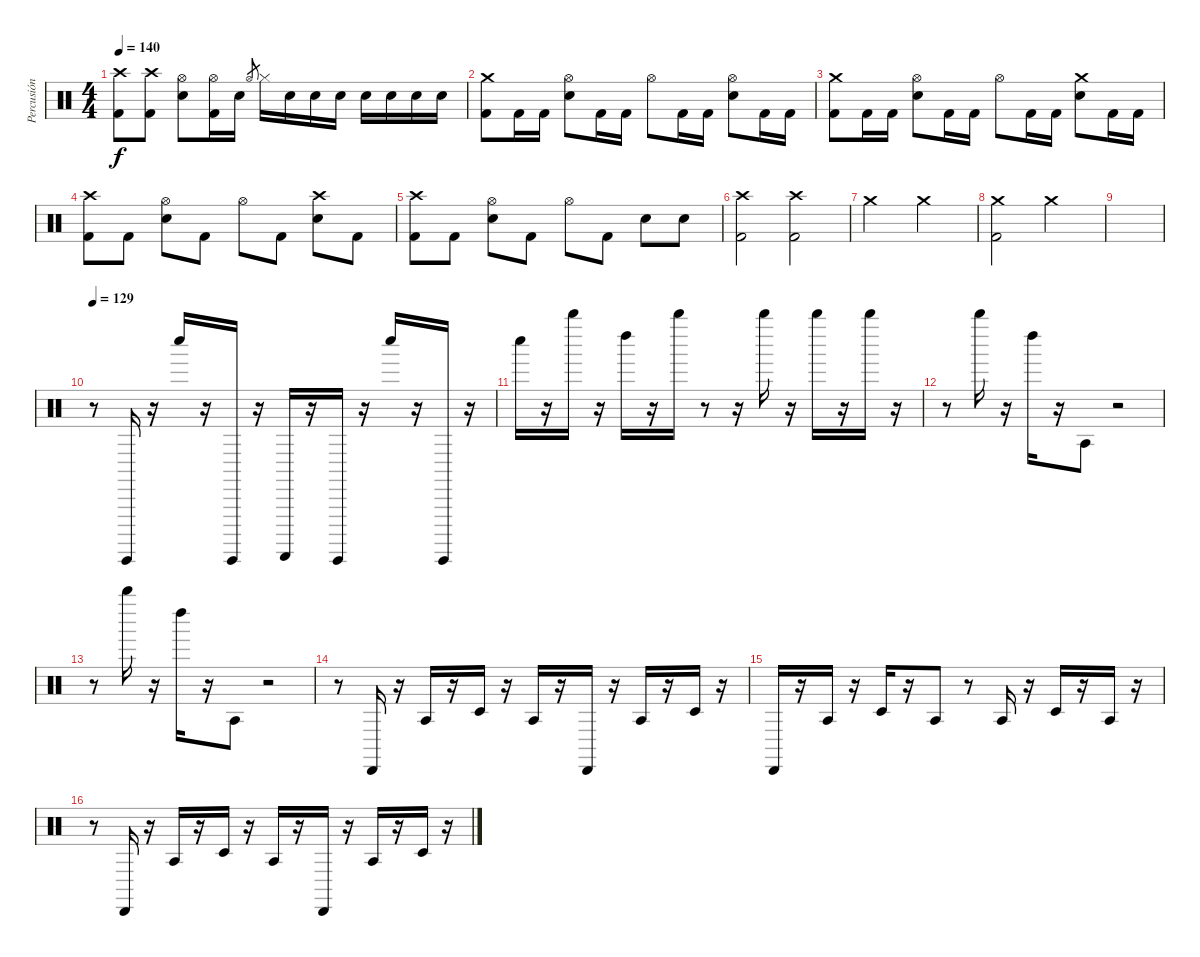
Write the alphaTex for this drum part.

\track ("Percusión" "Percusión") {instrument percussion}
\staff {score}
\articulation defaults
\ts (4 4)
\tempo 140
\clef neutral
\ks c
("Crash high (hit)" "Kick (hit) 2").8{dy f} ("Crash high (hit)" "Kick (hit) 2").8 ("Hi-Hat (open)" "Snare (hit) 2").8 ("Hi-Hat (open)" "Kick (hit) 2").16 "Snare (hit) 2".16 "Hi-Hat (open)".8{gr} "Hi-Hat (closed)".16 "Snare (hit) 2".16 "Snare (hit) 2".16 "Snare (hit) 2".16 "Snare (hit) 2".16 "Snare (hit) 2".16 "Snare (hit) 2".16 "Snare (hit) 2".16 |
("Crash medium (hit)" "Kick (hit) 2").8 "Kick (hit) 2".16 "Kick (hit) 2".16 ("Hi-Hat (open)" "Snare (hit) 2").8 "Kick (hit) 2".16 "Kick (hit) 2".16 "Hi-Hat (open)".8 "Kick (hit) 2".16 "Kick (hit) 2".16 ("Hi-Hat (open)" "Snare (hit) 2").8 "Kick (hit) 2".16 "Kick (hit) 2".16 |
("Crash medium (hit)" "Kick (hit) 2").8 "Kick (hit) 2".16 "Kick (hit) 2".16 ("Hi-Hat (open)" "Snare (hit) 2").8 "Kick (hit) 2".16 "Kick (hit) 2".16 "Hi-Hat (open)".8 "Kick (hit) 2".16 "Kick (hit) 2".16 ("Crash medium (hit)" "Snare (hit) 2").8 "Kick (hit) 2".16 "Kick (hit) 2".16 |
("Crash high (hit)" "Kick (hit) 2").8 "Kick (hit) 2".8 ("Hi-Hat (open)" "Snare (hit) 2").8 "Kick (hit) 2".8 "Hi-Hat (open)".8 "Kick (hit) 2".8 ("Crash high (hit)" "Snare (hit) 2").8 "Kick (hit) 2".8 |
("Crash high (hit)" "Kick (hit) 2").8 "Kick (hit) 2".8 ("Hi-Hat (open)" "Snare (hit) 2").8 "Kick (hit) 2".8 "Hi-Hat (open)".8 "Kick (hit) 2".8 "Snare (hit) 2".8 "Snare (hit) 2".8 |
("Crash high (hit)" "Kick (hit) 2").2 ("Crash high (hit)" "Kick (hit) 2").2 |
"Crash medium (hit)".2 "Crash medium (hit)".2 |
("Crash medium (hit)" "Kick (hit) 2").2 "Crash medium (hit)".2 |
|
\tempo 129
r.8{volume 12} "Guiro (hit)".16 r.16 "Whistle low (hit)".16 r.16 "Guiro (hit)".16 r.16 "Guiro (scrap-return)".16 r.16 "Guiro (hit)".16 r.16 "Whistle low (hit)".16 r.16 "Guiro (hit)".16 r.16 |
"Whistle low (hit)".16 r.16 "Whistle high (hit)".16 r.16 "Left Maraca (hit)".16 r.16 "Whistle high (hit)".16 r.8 r.16 "Whistle high (hit)".16 r.16 "Whistle high (hit)".16 r.16 "Whistle high (hit)".16 r.16 |
r.8 "Whistle high (hit)".16 r.16 "Left Maraca (hit)".16 r.16 "Agogo tow (hit)".8 r.2 |
r.8 "Whistle high (hit)".16 r.16 "Left Maraca (hit)".16 r.16 "Agogo tow (hit)".8 r.2 |
r.8 "Cabasa (hit)".16 r.16 "Agogo tow (hit)".16 r.16 "Timbale low (hit)".16 r.16 "Agogo tow (hit)".16 r.16 "Cabasa (hit)".16 r.16 "Agogo tow (hit)".16 r.16 "Timbale low (hit)".16 r.16 |
"Cabasa (hit)".16 r.16 "Agogo tow (hit)".16 r.16 "Timbale low (hit)".16 r.16 "Agogo tow (hit)".8 r.8 "Agogo tow (hit)".16 r.16 "Timbale low (hit)".16 r.16 "Agogo tow (hit)".16 r.16 |
r.8 "Cabasa (hit)".16 r.16 "Agogo tow (hit)".16 r.16 "Timbale low (hit)".16 r.16 "Agogo tow (hit)".16 r.16 "Cabasa (hit)".16 r.16 "Agogo tow (hit)".16 r.16 "Timbale low (hit)".16 r.16
